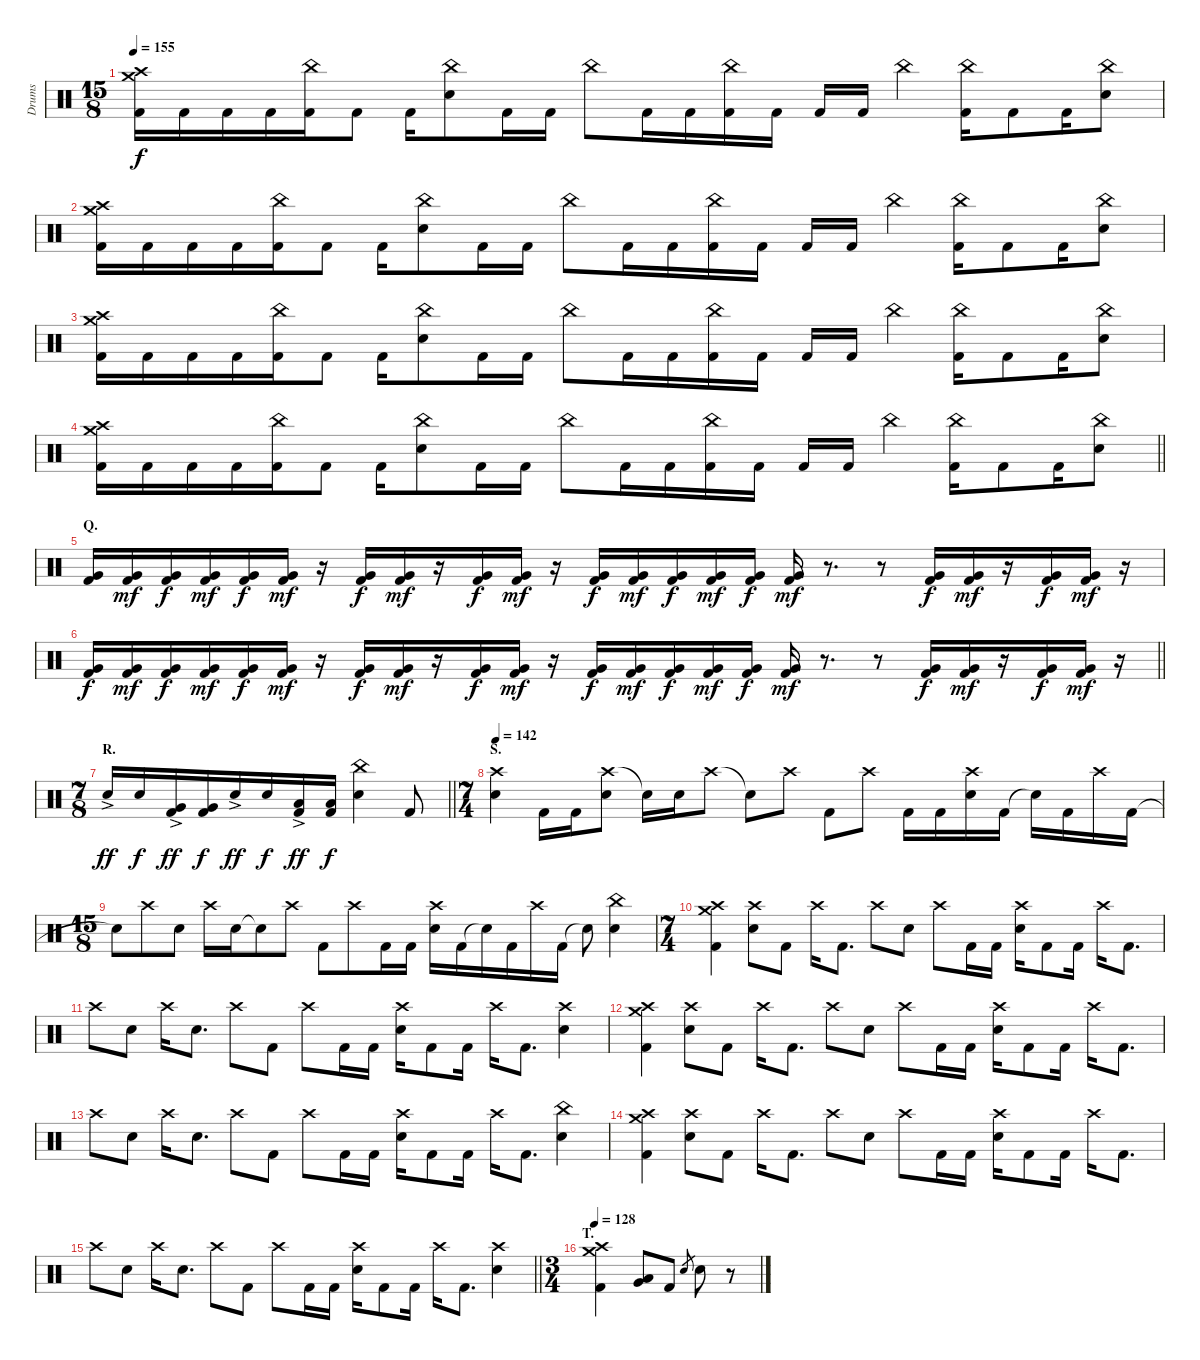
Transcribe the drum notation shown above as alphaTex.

\track ("Drums" "Drums") {instrument percussion}
\staff {score}
\articulation defaults
\ts (15 8)
\tempo 155
\clef neutral
\ks c
("Crash medium (hit)" "Crash high (hit)" "Kick (hit) 2").16{dy f} "Kick (hit) 2".16 "Kick (hit) 2".16 "Kick (hit) 2".16 ("China (hit)" "Kick (hit) 2").16 "Kick (hit) 2".8 "Kick (hit) 2".16 ("China (hit)" "Electric Snare (hit)").8 "Kick (hit) 2".16 "Kick (hit) 2".16 "China (hit)".8 "Kick (hit) 2".16 "Kick (hit) 2".16 ("China (hit)" "Kick (hit) 2").16 "Kick (hit) 2".16 "Kick (hit) 2".16 "Kick (hit) 2".16 "China (hit)".4 ("China (hit)" "Kick (hit) 2").16 "Kick (hit) 2".8 "Kick (hit) 2".16 ("China (hit)" "Electric Snare (hit)").8 |
("Crash medium (hit)" "Crash high (hit)" "Kick (hit) 2").16 "Kick (hit) 2".16 "Kick (hit) 2".16 "Kick (hit) 2".16 ("China (hit)" "Kick (hit) 2").16 "Kick (hit) 2".8 "Kick (hit) 2".16 ("China (hit)" "Electric Snare (hit)").8 "Kick (hit) 2".16 "Kick (hit) 2".16 "China (hit)".8 "Kick (hit) 2".16 "Kick (hit) 2".16 ("China (hit)" "Kick (hit) 2").16 "Kick (hit) 2".16 "Kick (hit) 2".16 "Kick (hit) 2".16 "China (hit)".4 ("China (hit)" "Kick (hit) 2").16 "Kick (hit) 2".8 "Kick (hit) 2".16 ("China (hit)" "Electric Snare (hit)").8 |
("Crash medium (hit)" "Crash high (hit)" "Kick (hit) 2").16 "Kick (hit) 2".16 "Kick (hit) 2".16 "Kick (hit) 2".16 ("China (hit)" "Kick (hit) 2").16 "Kick (hit) 2".8 "Kick (hit) 2".16 ("China (hit)" "Electric Snare (hit)").8 "Kick (hit) 2".16 "Kick (hit) 2".16 "China (hit)".8 "Kick (hit) 2".16 "Kick (hit) 2".16 ("China (hit)" "Kick (hit) 2").16 "Kick (hit) 2".16 "Kick (hit) 2".16 "Kick (hit) 2".16 "China (hit)".4 ("China (hit)" "Kick (hit) 2").16 "Kick (hit) 2".8 "Kick (hit) 2".16 ("China (hit)" "Electric Snare (hit)").8 |
\barLineRight lightlight
("Crash medium (hit)" "Crash high (hit)" "Kick (hit) 2").16 "Kick (hit) 2".16 "Kick (hit) 2".16 "Kick (hit) 2".16 ("China (hit)" "Kick (hit) 2").16 "Kick (hit) 2".8 "Kick (hit) 2".16 ("China (hit)" "Electric Snare (hit)").8 "Kick (hit) 2".16 "Kick (hit) 2".16 "China (hit)".8 "Kick (hit) 2".16 "Kick (hit) 2".16 ("China (hit)" "Kick (hit) 2").16 "Kick (hit) 2".16 "Kick (hit) 2".16 "Kick (hit) 2".16 "China (hit)".4 ("China (hit)" "Kick (hit) 2").16 "Kick (hit) 2".8 "Kick (hit) 2".16 ("China (hit)" "Electric Snare (hit)").8 |
\section ("" "Q.")
("Very Low Tom (hit)" "Kick (hit) 2").16 ("Very Low Tom (hit)" "Kick (hit) 2").16{dy mf} ("Very Low Tom (hit)" "Kick (hit) 2").16{dy f} ("Very Low Tom (hit)" "Kick (hit) 2").16{dy mf} ("Very Low Tom (hit)" "Kick (hit) 2").16{dy f} ("Very Low Tom (hit)" "Kick (hit) 2").16{dy mf} r.16 ("Very Low Tom (hit)" "Kick (hit) 2").16{dy f} ("Very Low Tom (hit)" "Kick (hit) 2").16{dy mf} r.16 ("Very Low Tom (hit)" "Kick (hit) 2").16{dy f} ("Very Low Tom (hit)" "Kick (hit) 2").16{dy mf} r.16 ("Very Low Tom (hit)" "Kick (hit) 2").16{dy f} ("Very Low Tom (hit)" "Kick (hit) 2").16{dy mf} ("Very Low Tom (hit)" "Kick (hit) 2").16{dy f} ("Very Low Tom (hit)" "Kick (hit) 2").16{dy mf} ("Very Low Tom (hit)" "Kick (hit) 2").16{dy f} ("Very Low Tom (hit)" "Kick (hit) 2").16{dy mf} r.8{d} r.8 ("Very Low Tom (hit)" "Kick (hit) 2").16{dy f} ("Very Low Tom (hit)" "Kick (hit) 2").16{dy mf} r.16 ("Very Low Tom (hit)" "Kick (hit) 2").16{dy f} ("Very Low Tom (hit)" "Kick (hit) 2").16{dy mf} r.16 |
\barLineRight lightlight
("Very Low Tom (hit)" "Kick (hit) 2").16{dy f} ("Very Low Tom (hit)" "Kick (hit) 2").16{dy mf} ("Very Low Tom (hit)" "Kick (hit) 2").16{dy f} ("Very Low Tom (hit)" "Kick (hit) 2").16{dy mf} ("Very Low Tom (hit)" "Kick (hit) 2").16{dy f} ("Very Low Tom (hit)" "Kick (hit) 2").16{dy mf} r.16 ("Very Low Tom (hit)" "Kick (hit) 2").16{dy f} ("Very Low Tom (hit)" "Kick (hit) 2").16{dy mf} r.16 ("Very Low Tom (hit)" "Kick (hit) 2").16{dy f} ("Very Low Tom (hit)" "Kick (hit) 2").16{dy mf} r.16 ("Very Low Tom (hit)" "Kick (hit) 2").16{dy f} ("Very Low Tom (hit)" "Kick (hit) 2").16{dy mf} ("Very Low Tom (hit)" "Kick (hit) 2").16{dy f} ("Very Low Tom (hit)" "Kick (hit) 2").16{dy mf} ("Very Low Tom (hit)" "Kick (hit) 2").16{dy f} ("Very Low Tom (hit)" "Kick (hit) 2").16{dy mf} r.8{d} r.8 ("Very Low Tom (hit)" "Kick (hit) 2").16{dy f} ("Very Low Tom (hit)" "Kick (hit) 2").16{dy mf} r.16 ("Very Low Tom (hit)" "Kick (hit) 2").16{dy f} ("Very Low Tom (hit)" "Kick (hit) 2").16{dy mf} r.16 |
\ts (7 8)
\section ("" "R.")
\barLineRight lightlight "Electric Snare (hit)"{ac}.16{dy ff} "Electric Snare (hit)".16{dy f}
("Very Low Tom (hit)"{ac} "Kick (hit) 2").16{dy ff} ("Very Low Tom (hit)" "Kick (hit) 2").16{dy f} "Electric Snare (hit)"{ac}.16{dy ff} "Electric Snare (hit)".16{dy f} ("Low Floor Tom (hit)"{ac} "Kick (hit) 2").16{dy ff} ("Low Floor Tom (hit)" "Kick (hit) 2").16{dy f} ("China (hit)" "Electric Snare (hit)").4 "Kick (hit) 2".8 |
\ts (7 4)
\section ("" "S.")
\tempo 142
("Crash high (hit)" "Electric Snare (hit)").4 "Kick (hit) 2".16 "Kick (hit) 2".16 ("Crash high (hit)" "Electric Snare (hit)").8 "Snare (hit)"{t}.16 "Electric Snare (hit)".16 "Crash high (hit)".8 "Snare (hit)"{t}.8 "Crash high (hit)".8 "Kick (hit) 2".8 "Crash high (hit)".8 "Kick (hit) 2".16 "Kick (hit) 2".16 ("Crash high (hit)" "Electric Snare (hit)").16 "Kick (hit) 2".16 "Snare (hit)"{t}.16 "Kick (hit) 2".16 "Crash high (hit)".16 "Kick (hit) 2".16 |
\ts (15 8)
"Snare (hit)"{t}.8 "Crash high (hit)".8 "Electric Snare (hit)".8 "Crash high (hit)".16 "Electric Snare (hit)".16 "Snare (hit)"{t}.8 "Crash high (hit)".8 "Kick (hit) 2".8 "Crash high (hit)".8 "Kick (hit) 2".16 "Kick (hit) 2".16 ("Crash high (hit)" "Electric Snare (hit)").16 "Kick (hit) 2".16 "Snare (hit)"{t}.16 "Kick (hit) 2".16 "Crash high (hit)".16 "Kick (hit) 2".16 "Snare (hit)"{t}.8 ("China (hit)" "Electric Snare (hit)").4 |
\ts (7 4)
("Crash medium (hit)" "Crash high (hit)" "Kick (hit) 2").4 ("Crash high (hit)" "Electric Snare (hit)").8 "Kick (hit) 2".8 "Crash high (hit)".16 "Kick (hit) 2".8{d} "Crash high (hit)".8 "Electric Snare (hit)".8 "Crash high (hit)".8 "Kick (hit) 2".16 "Kick (hit) 2".16 ("Crash high (hit)" "Electric Snare (hit)").16 "Kick (hit) 2".8 "Kick (hit) 2".16 "Crash high (hit)".16 "Kick (hit) 2".8{d} |
"Crash high (hit)".8 "Electric Snare (hit)".8 "Crash high (hit)".16 "Electric Snare (hit)".8{d} "Crash high (hit)".8 "Kick (hit) 2".8 "Crash high (hit)".8 "Kick (hit) 2".16 "Kick (hit) 2".16 ("Crash high (hit)" "Electric Snare (hit)").16 "Kick (hit) 2".8 "Kick (hit) 2".16 "Crash high (hit)".16 "Kick (hit) 2".8{d} ("Crash high (hit)" "Electric Snare (hit)").4 |
("Crash medium (hit)" "Crash high (hit)" "Kick (hit) 2").4 ("Crash high (hit)" "Electric Snare (hit)").8 "Kick (hit) 2".8 "Crash high (hit)".16 "Kick (hit) 2".8{d} "Crash high (hit)".8 "Electric Snare (hit)".8 "Crash high (hit)".8 "Kick (hit) 2".16 "Kick (hit) 2".16 ("Crash high (hit)" "Electric Snare (hit)").16 "Kick (hit) 2".8 "Kick (hit) 2".16 "Crash high (hit)".16 "Kick (hit) 2".8{d} |
"Crash high (hit)".8 "Electric Snare (hit)".8 "Crash high (hit)".16 "Electric Snare (hit)".8{d} "Crash high (hit)".8 "Kick (hit) 2".8 "Crash high (hit)".8 "Kick (hit) 2".16 "Kick (hit) 2".16 ("Crash high (hit)" "Electric Snare (hit)").16 "Kick (hit) 2".8 "Kick (hit) 2".16 "Crash high (hit)".16 "Kick (hit) 2".8{d} ("China (hit)" "Electric Snare (hit)").4 |
("Crash medium (hit)" "Crash high (hit)" "Kick (hit) 2").4 ("Crash high (hit)" "Electric Snare (hit)").8 "Kick (hit) 2".8 "Crash high (hit)".16 "Kick (hit) 2".8{d} "Crash high (hit)".8 "Electric Snare (hit)".8 "Crash high (hit)".8 "Kick (hit) 2".16 "Kick (hit) 2".16 ("Crash high (hit)" "Electric Snare (hit)").16 "Kick (hit) 2".8 "Kick (hit) 2".16 "Crash high (hit)".16 "Kick (hit) 2".8{d} |
\barLineRight lightlight "Crash high (hit)".8 "Electric Snare (hit)".8 "Crash high (hit)".16 "Electric Snare (hit)".8{d} "Crash high (hit)".8 "Kick (hit) 2".8 "Crash high (hit)".8 "Kick (hit) 2".16 "Kick (hit) 2".16
("Crash high (hit)" "Electric Snare (hit)").16 "Kick (hit) 2".8 "Kick (hit) 2".16 "Crash high (hit)".16 "Kick (hit) 2".8{d} ("Crash high (hit)" "Electric Snare (hit)").4 |
\ts (3 4)
\section ("" "T.")
\tempo 128
("Crash medium (hit)" "Crash high (hit)" "Kick (hit) 2").4 ("Very Low Tom (hit)" "Low Floor Tom (hit)").8{bu 120} "Kick (hit) 2".8 "Electric Snare (hit)".8{gr} "Electric Snare (hit)".8 r.8
